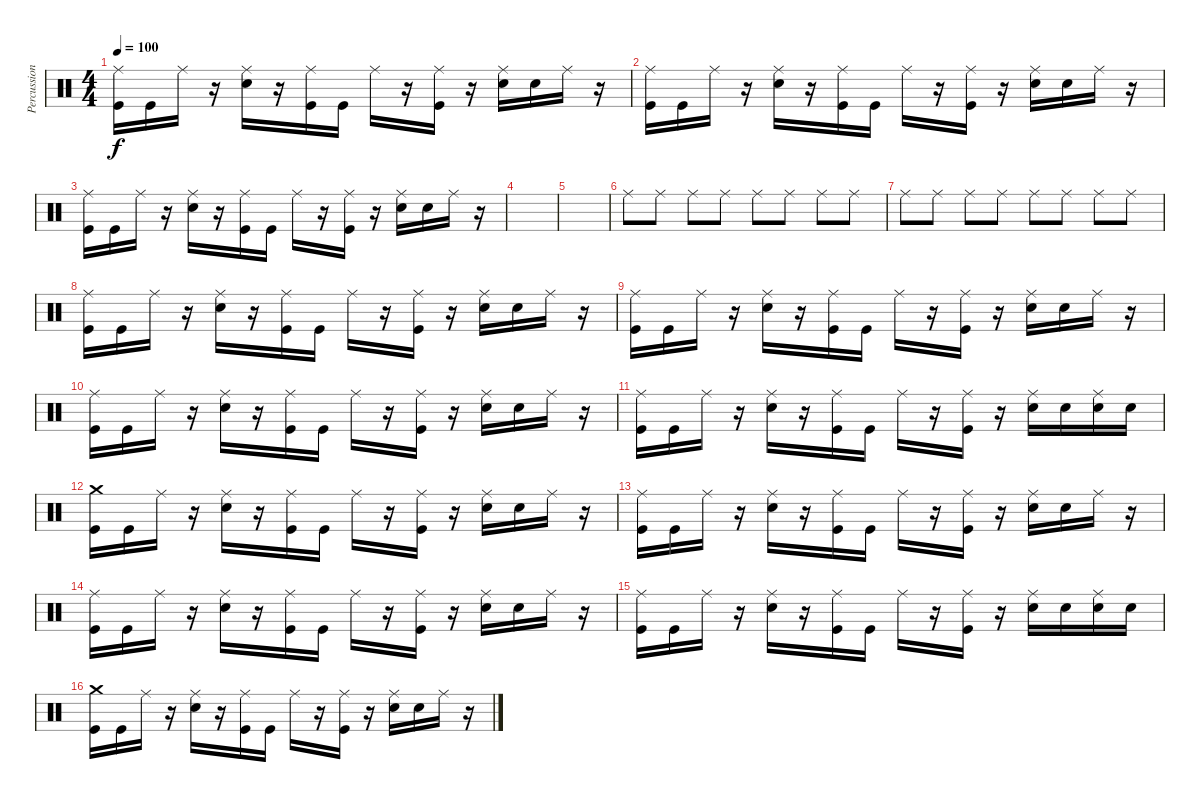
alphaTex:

\track ("Percussions" "Percussion") {instrument percussion}
\staff {score}
\articulation defaults
\ts (4 4)
\tempo 100
\clef neutral
\ks c
("Ride (middle)" "Kick (hit)").16{dy f} "Kick (hit)".16 "Ride (middle)".16 r.16 ("Ride (middle)" "Electric Snare (hit)").16 r.16 ("Ride (middle)" "Kick (hit)").16 "Kick (hit)".16 "Ride (middle)".16 r.16 ("Ride (middle)" "Kick (hit)").16 r.16 ("Ride (middle)" "Electric Snare (hit)").16 "Electric Snare (hit)".16 "Ride (middle)".16 r.16 |
("Ride (middle)" "Kick (hit)").16 "Kick (hit)".16 "Ride (middle)".16 r.16 ("Ride (middle)" "Electric Snare (hit)").16 r.16 ("Ride (middle)" "Kick (hit)").16 "Kick (hit)".16 "Ride (middle)".16 r.16 ("Ride (middle)" "Kick (hit)").16 r.16 ("Ride (middle)" "Electric Snare (hit)").16 "Electric Snare (hit)".16 "Ride (middle)".16 r.16 |
("Ride (middle)" "Kick (hit)").16 "Kick (hit)".16 "Ride (middle)".16 r.16 ("Ride (middle)" "Electric Snare (hit)").16 r.16 ("Ride (middle)" "Kick (hit)").16 "Kick (hit)".16 "Ride (middle)".16 r.16 ("Ride (middle)" "Kick (hit)").16 r.16 ("Ride (middle)" "Electric Snare (hit)").16 "Electric Snare (hit)".16 "Ride (middle)".16 r.16 |
|
|
"Ride (middle)".8 "Ride (middle)".8 "Ride (middle)".8 "Ride (middle)".8 "Ride (middle)".8 "Ride (middle)".8 "Ride (middle)".8 "Ride (middle)".8 |
"Ride (middle)".8 "Ride (middle)".8 "Ride (middle)".8 "Ride (middle)".8 "Ride (middle)".8 "Ride (middle)".8 "Ride (middle)".8 "Ride (middle)".8 |
("Ride (middle)" "Kick (hit)").16 "Kick (hit)".16 "Ride (middle)".16 r.16 ("Ride (middle)" "Electric Snare (hit)").16 r.16 ("Ride (middle)" "Kick (hit)").16 "Kick (hit)".16 "Ride (middle)".16 r.16 ("Ride (middle)" "Kick (hit)").16 r.16 ("Ride (middle)" "Electric Snare (hit)").16 "Electric Snare (hit)".16 "Ride (middle)".16 r.16 |
("Ride (middle)" "Kick (hit)").16 "Kick (hit)".16 "Ride (middle)".16 r.16 ("Ride (middle)" "Electric Snare (hit)").16 r.16 ("Ride (middle)" "Kick (hit)").16 "Kick (hit)".16 "Ride (middle)".16 r.16 ("Ride (middle)" "Kick (hit)").16 r.16 ("Ride (middle)" "Electric Snare (hit)").16 "Electric Snare (hit)".16 "Ride (middle)".16 r.16 |
("Ride (middle)" "Kick (hit)").16 "Kick (hit)".16 "Ride (middle)".16 r.16 ("Ride (middle)" "Electric Snare (hit)").16 r.16 ("Ride (middle)" "Kick (hit)").16 "Kick (hit)".16 "Ride (middle)".16 r.16 ("Ride (middle)" "Kick (hit)").16 r.16 ("Ride (middle)" "Electric Snare (hit)").16 "Electric Snare (hit)".16 "Ride (middle)".16 r.16 |
("Ride (middle)" "Kick (hit)").16 "Kick (hit)".16 "Ride (middle)".16 r.16 ("Ride (middle)" "Electric Snare (hit)").16 r.16 ("Ride (middle)" "Kick (hit)").16 "Kick (hit)".16 "Ride (middle)".16 r.16 ("Ride (middle)" "Kick (hit)").16 r.16 ("Ride (middle)" "Electric Snare (hit)").16 "Electric Snare (hit)".16 ("Ride (middle)" "Electric Snare (hit)").16 "Electric Snare (hit)".16 |
("Crash medium (hit)" "Kick (hit)").16 "Kick (hit)".16 "Ride (middle)".16 r.16 ("Ride (middle)" "Electric Snare (hit)").16 r.16 ("Ride (middle)" "Kick (hit)").16 "Kick (hit)".16 "Ride (middle)".16 r.16 ("Ride (middle)" "Kick (hit)").16 r.16 ("Ride (middle)" "Electric Snare (hit)").16 "Electric Snare (hit)".16 "Ride (middle)".16 r.16 |
("Ride (middle)" "Kick (hit)").16 "Kick (hit)".16 "Ride (middle)".16 r.16 ("Ride (middle)" "Electric Snare (hit)").16 r.16 ("Ride (middle)" "Kick (hit)").16 "Kick (hit)".16 "Ride (middle)".16 r.16 ("Ride (middle)" "Kick (hit)").16 r.16 ("Ride (middle)" "Electric Snare (hit)").16 "Electric Snare (hit)".16 "Ride (middle)".16 r.16 |
("Ride (middle)" "Kick (hit)").16 "Kick (hit)".16 "Ride (middle)".16 r.16 ("Ride (middle)" "Electric Snare (hit)").16 r.16 ("Ride (middle)" "Kick (hit)").16 "Kick (hit)".16 "Ride (middle)".16 r.16 ("Ride (middle)" "Kick (hit)").16 r.16 ("Ride (middle)" "Electric Snare (hit)").16 "Electric Snare (hit)".16 "Ride (middle)".16 r.16 |
("Ride (middle)" "Kick (hit)").16 "Kick (hit)".16 "Ride (middle)".16 r.16 ("Ride (middle)" "Electric Snare (hit)").16 r.16 ("Ride (middle)" "Kick (hit)").16 "Kick (hit)".16 "Ride (middle)".16 r.16 ("Ride (middle)" "Kick (hit)").16 r.16 ("Ride (middle)" "Electric Snare (hit)").16 "Electric Snare (hit)".16 ("Ride (middle)" "Electric Snare (hit)").16 "Electric Snare (hit)".16 |
("Crash medium (hit)" "Kick (hit)").16 "Kick (hit)".16 "Ride (middle)".16 r.16 ("Ride (middle)" "Electric Snare (hit)").16 r.16 ("Ride (middle)" "Kick (hit)").16 "Kick (hit)".16 "Ride (middle)".16 r.16 ("Ride (middle)" "Kick (hit)").16 r.16 ("Ride (middle)" "Electric Snare (hit)").16 "Electric Snare (hit)".16 "Ride (middle)".16 r.16
